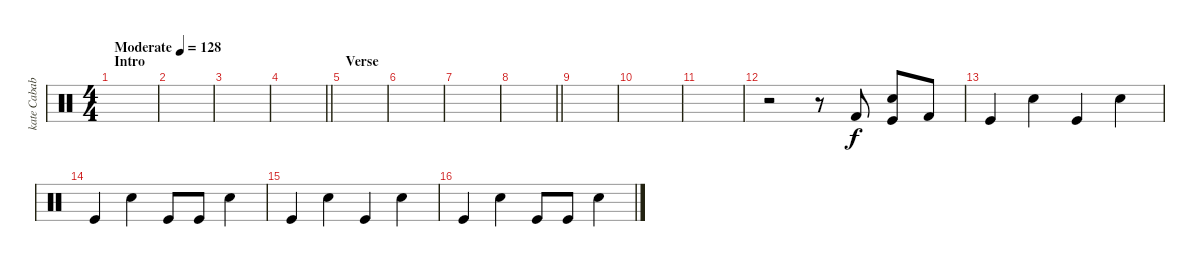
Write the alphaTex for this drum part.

\track ("kate Cababe" "kate Cabab") {instrument percussion}
\staff {score}
\articulation defaults
\ts (4 4)
\section ("" "Intro")
\tempo (128 "Moderate")
\clef neutral
\ks c
|
|
|
\barLineRight lightlight
|
\section ("" "Verse")
|
|
|
\barLineRight lightlight
|
|
|
|
r.2 r.8 "Kick (hit) 2".8 ("Kick (hit)" "Snare (hit) 2").8 "Kick (hit) 2".8 |
"Kick (hit)".4 "Snare (hit) 2".4 "Kick (hit)".4 "Snare (hit) 2".4 |
"Kick (hit)".4 "Snare (hit) 2".4 "Kick (hit)".8 "Kick (hit)".8 "Snare (hit) 2".4 |
"Kick (hit)".4 "Snare (hit) 2".4 "Kick (hit)".4 "Snare (hit) 2".4 |
"Kick (hit)".4 "Snare (hit) 2".4 "Kick (hit)".8 "Kick (hit)".8 "Snare (hit) 2".4
